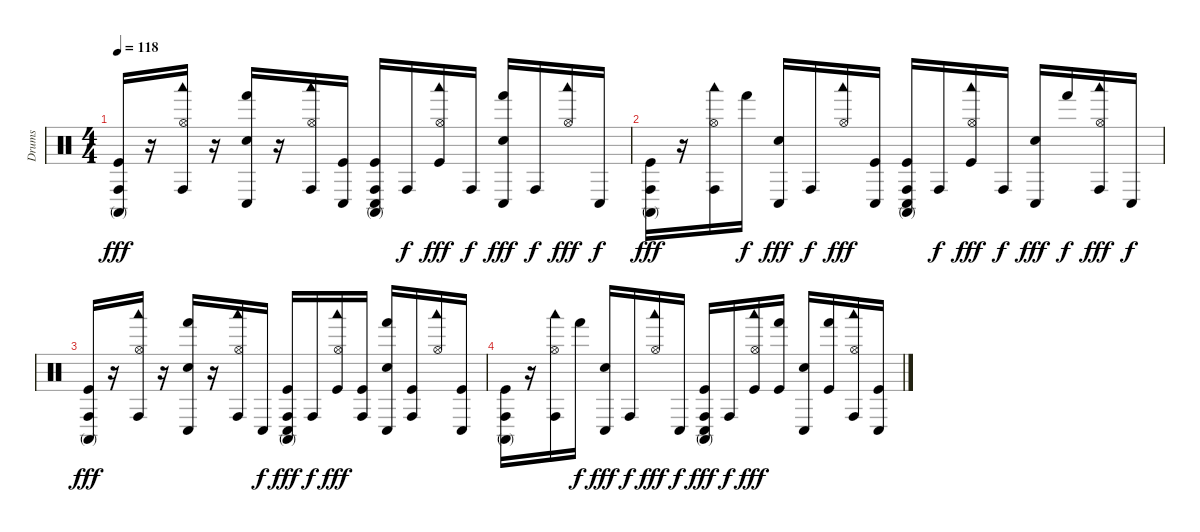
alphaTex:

\track ("Drums" "Drums") {instrument percussion}
\staff {score}
\articulation defaults
\ts (4 4)
\tempo 118
\clef neutral
\ks c
("Kick (hit)" "Conga high (mute)" "Conga high (hit)").16{dy fff} r.16 ("Woodblock low (hit)" "Conga high (hit)" "Hi-Hat (open)").16 r.16 ("Hand (hit)" "Conga low (hit)" "Electric Snare (hit)").16{volume 7} r.16 ("Conga high (hit)" "Woodblock low (hit)" "Hi-Hat (open)").16 ("Conga low (hit)" "Kick (hit)").16 ("Conga high (hit)" "Conga high (mute)" "Conga low (hit)" "Kick (hit)").16 "Conga high (hit)".16{dy f} ("Woodblock low (hit)" "Hi-Hat (open)" "Kick (hit)").16{dy fff} "Conga high (hit)".16{dy f} ("Hand (hit)" "Conga low (hit)" "Electric Snare (hit)").16{dy fff} "Conga high (hit)".16{dy f} ("Woodblock low (hit)" "Hi-Hat (open)").16{dy fff} "Conga low (hit)".16{dy f} |
("Conga high (hit)" "Conga high (mute)" "Kick (hit)").16{dy fff} r.16 ("Woodblock low (hit)" "Conga high (hit)" "Hi-Hat (open)").16 "Hand (hit)".16{dy f} ("Conga low (hit)" "Electric Snare (hit)").16{dy fff} "Conga high (hit)".16{dy f} ("Woodblock low (hit)" "Hi-Hat (open)").16{dy fff} ("Conga low (hit)" "Kick (hit)").16 ("Conga high (hit)" "Conga high (mute)" "Conga low (hit)" "Kick (hit)").16 "Conga high (hit)".16{dy f volume 6} ("Woodblock low (hit)" "Hi-Hat (open)" "Kick (hit)").16{dy fff} "Conga high (hit)".16{dy f} ("Conga low (hit)" "Electric Snare (hit)").16{dy fff} "Hand (hit)".16{dy f} ("Conga high (hit)" "Woodblock low (hit)" "Hi-Hat (open)").16{dy fff} "Conga low (hit)".16{dy f} |
("Conga high (hit)" "Conga high (mute)" "Kick (hit)").16{dy fff} r.16 ("Woodblock low (hit)" "Conga high (hit)" "Hi-Hat (open)").16 r.16 ("Hand (hit)" "Conga low (hit)" "Electric Snare (hit)").16 r.16 ("Conga high (hit)" "Woodblock low (hit)" "Hi-Hat (open)").16 "Conga low (hit)".16{dy f} ("Conga high (hit)" "Conga high (mute)" "Conga low (hit)" "Kick (hit)").16{dy fff volume 4} "Conga high (hit)".16{dy f} ("Woodblock low (hit)" "Kick (hit)" "Hi-Hat (open)").16{dy fff} ("Conga high (hit)" "Kick (hit)").16 ("Hand (hit)" "Conga low (hit)" "Electric Snare (hit)").16 ("Conga high (hit)" "Kick (hit)").16 ("Woodblock low (hit)" "Hi-Hat (open)").16 ("Conga low (hit)" "Kick (hit)").16 |
("Conga high (hit)" "Conga high (mute)" "Kick (hit)").16 r.16 ("Woodblock low (hit)" "Conga high (hit)" "Hi-Hat (open)").16 "Hand (hit)".16{dy f} ("Conga low (hit)" "Electric Snare (hit)").16{dy fff} "Conga high (hit)".16{dy f} ("Woodblock low (hit)" "Hi-Hat (open)").16{dy fff volume 2} "Conga low (hit)".16{dy f} ("Conga high (hit)" "Conga high (mute)" "Conga low (hit)" "Kick (hit)").16{dy fff} "Conga high (hit)".16{dy f} ("Woodblock low (hit)" "Hi-Hat (open)" "Kick (hit)").16{dy fff} ("Hand (hit)" "Kick (hit)").16 ("Conga low (hit)" "Electric Snare (hit)").16 ("Hand (hit)" "Kick (hit)").16 ("Conga high (hit)" "Woodblock low (hit)" "Hi-Hat (open)").16{volume 1} ("Conga low (hit)" "Kick (hit)").16
